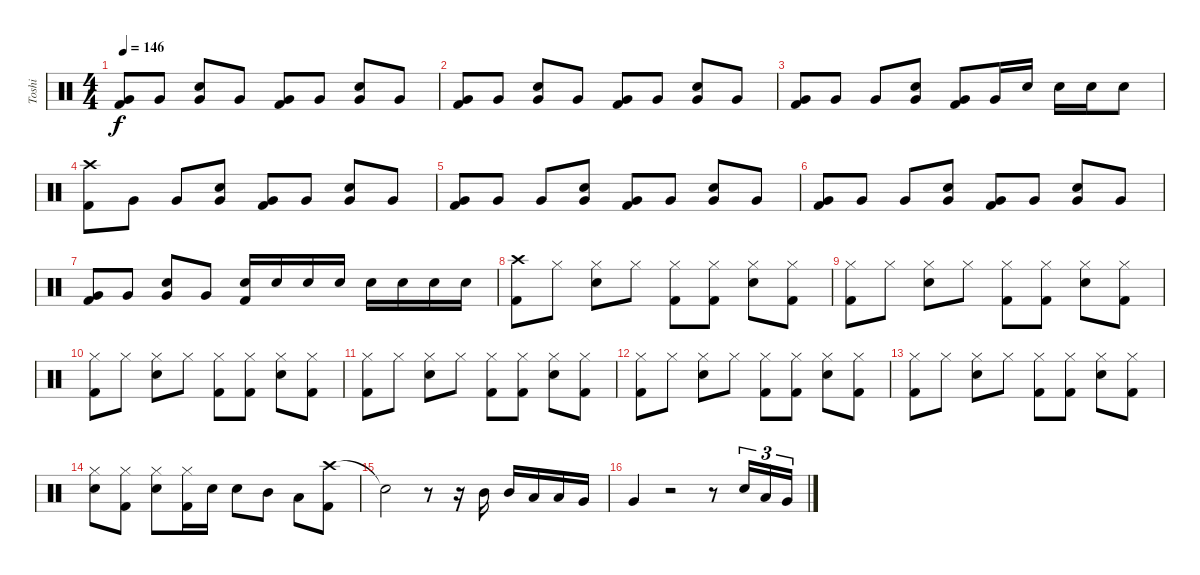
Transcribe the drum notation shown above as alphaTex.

\track ("Toshi" "Toshi") {instrument percussion}
\staff {score}
\articulation defaults
\ts (4 4)
\tempo 146
\clef neutral
\ks c
("Very Low Tom (hit)" "Kick (hit) 2").8{dy f} "Very Low Tom (hit)".8 ("Very Low Tom (hit)" "Electric Snare (hit)").8 "Very Low Tom (hit)".8 ("Very Low Tom (hit)" "Kick (hit) 2").8 "Very Low Tom (hit)".8 ("Very Low Tom (hit)" "Electric Snare (hit)").8 "Very Low Tom (hit)".8 |
("Very Low Tom (hit)" "Kick (hit) 2").8 "Very Low Tom (hit)".8 ("Very Low Tom (hit)" "Electric Snare (hit)").8 "Very Low Tom (hit)".8 ("Very Low Tom (hit)" "Kick (hit) 2").8 "Very Low Tom (hit)".8 ("Very Low Tom (hit)" "Electric Snare (hit)").8 "Very Low Tom (hit)".8 |
("Very Low Tom (hit)" "Kick (hit) 2").8 "Very Low Tom (hit)".8 "Very Low Tom (hit)".8 ("Very Low Tom (hit)" "Electric Snare (hit)").8 ("Very Low Tom (hit)" "Kick (hit) 2").8 "Very Low Tom (hit)".16 "Electric Snare (hit)".16 "Electric Snare (hit)".16 "Electric Snare (hit)".16 "Electric Snare (hit)".8 |
("Crash high (hit)" "Kick (hit) 2").8 "Very Low Tom (hit)".8 "Very Low Tom (hit)".8 ("Very Low Tom (hit)" "Electric Snare (hit)").8 ("Very Low Tom (hit)" "Kick (hit) 2").8 "Very Low Tom (hit)".8 ("Very Low Tom (hit)" "Electric Snare (hit)").8 "Very Low Tom (hit)".8 |
("Very Low Tom (hit)" "Kick (hit) 2").8 "Very Low Tom (hit)".8 "Very Low Tom (hit)".8 ("Very Low Tom (hit)" "Electric Snare (hit)").8 ("Very Low Tom (hit)" "Kick (hit) 2").8 "Very Low Tom (hit)".8 ("Very Low Tom (hit)" "Electric Snare (hit)").8 "Very Low Tom (hit)".8 |
("Very Low Tom (hit)" "Kick (hit) 2").8 "Very Low Tom (hit)".8 "Very Low Tom (hit)".8 ("Very Low Tom (hit)" "Electric Snare (hit)").8 ("Very Low Tom (hit)" "Kick (hit) 2").8 "Very Low Tom (hit)".8 ("Very Low Tom (hit)" "Electric Snare (hit)").8 "Very Low Tom (hit)".8 |
("Very Low Tom (hit)" "Kick (hit) 2").8 "Very Low Tom (hit)".8 ("Very Low Tom (hit)" "Electric Snare (hit)").8 "Very Low Tom (hit)".8 ("Electric Snare (hit)" "Kick (hit) 2").16 "Electric Snare (hit)".16 "Electric Snare (hit)".16 "Electric Snare (hit)".16 "Electric Snare (hit)".16 "Electric Snare (hit)".16 "Electric Snare (hit)".16 "Electric Snare (hit)".16 |
("Crash high (hit)" "Kick (hit) 2").8 "Hi-Hat (closed)".8 ("Hi-Hat (closed)" "Electric Snare (hit)").8 "Hi-Hat (closed)".8 ("Hi-Hat (closed)" "Kick (hit) 2").8 ("Hi-Hat (closed)" "Kick (hit) 2").8 ("Hi-Hat (closed)" "Electric Snare (hit)").8 ("Hi-Hat (closed)" "Kick (hit) 2").8 |
("Hi-Hat (closed)" "Kick (hit) 2").8 "Hi-Hat (closed)".8 ("Hi-Hat (closed)" "Electric Snare (hit)").8 "Hi-Hat (closed)".8 ("Hi-Hat (closed)" "Kick (hit) 2").8 ("Hi-Hat (closed)" "Kick (hit) 2").8 ("Hi-Hat (closed)" "Electric Snare (hit)").8 ("Hi-Hat (closed)" "Kick (hit) 2").8 |
("Hi-Hat (closed)" "Kick (hit) 2").8 "Hi-Hat (closed)".8 ("Hi-Hat (closed)" "Electric Snare (hit)").8 "Hi-Hat (closed)".8 ("Hi-Hat (closed)" "Kick (hit) 2").8 ("Hi-Hat (closed)" "Kick (hit) 2").8 ("Hi-Hat (closed)" "Electric Snare (hit)").8 ("Hi-Hat (closed)" "Kick (hit) 2").8 |
("Hi-Hat (closed)" "Kick (hit) 2").8 "Hi-Hat (closed)".8 ("Hi-Hat (closed)" "Electric Snare (hit)").8 "Hi-Hat (closed)".8 ("Hi-Hat (closed)" "Kick (hit) 2").8 ("Hi-Hat (closed)" "Kick (hit) 2").8 ("Hi-Hat (closed)" "Electric Snare (hit)").8 ("Hi-Hat (closed)" "Kick (hit) 2").8 |
("Hi-Hat (closed)" "Kick (hit) 2").8 "Hi-Hat (closed)".8 ("Hi-Hat (closed)" "Electric Snare (hit)").8 "Hi-Hat (closed)".8 ("Hi-Hat (closed)" "Kick (hit) 2").8 ("Hi-Hat (closed)" "Kick (hit) 2").8 ("Hi-Hat (closed)" "Electric Snare (hit)").8 ("Hi-Hat (closed)" "Kick (hit) 2").8 |
("Hi-Hat (closed)" "Kick (hit) 2").8 "Hi-Hat (closed)".8 ("Hi-Hat (closed)" "Electric Snare (hit)").8 "Hi-Hat (closed)".8 ("Hi-Hat (closed)" "Kick (hit) 2").8 ("Hi-Hat (closed)" "Kick (hit) 2").8 ("Hi-Hat (closed)" "Electric Snare (hit)").8 ("Hi-Hat (closed)" "Kick (hit) 2").8 |
("Hi-Hat (closed)" "Electric Snare (hit)").8 ("Hi-Hat (closed)" "Kick (hit) 2").8 ("Hi-Hat (closed)" "Electric Snare (hit)").8 ("Hi-Hat (closed)" "Kick (hit) 2").16 "Electric Snare (hit)".16 "Electric Snare (hit)".8 "Mid Tom (hit)".8 "Low Tom (hit)".8 ("Crash high (hit)" "Kick (hit) 2").8 |
"Snare (hit)"{t}.2 r.8 r.16 "Mid Tom (hit)".16 "Mid Tom (hit)".16 "Low Tom (hit)".16 "Low Tom (hit)".16 "Very Low Tom (hit)".16 |
"Very Low Tom (hit)".4 r.2 r.8 "Electric Snare (hit)".16{tu (3 2)} "Low Tom (hit)".16{tu (3 2)} "Very Low Tom (hit)".16{tu (3 2)}
